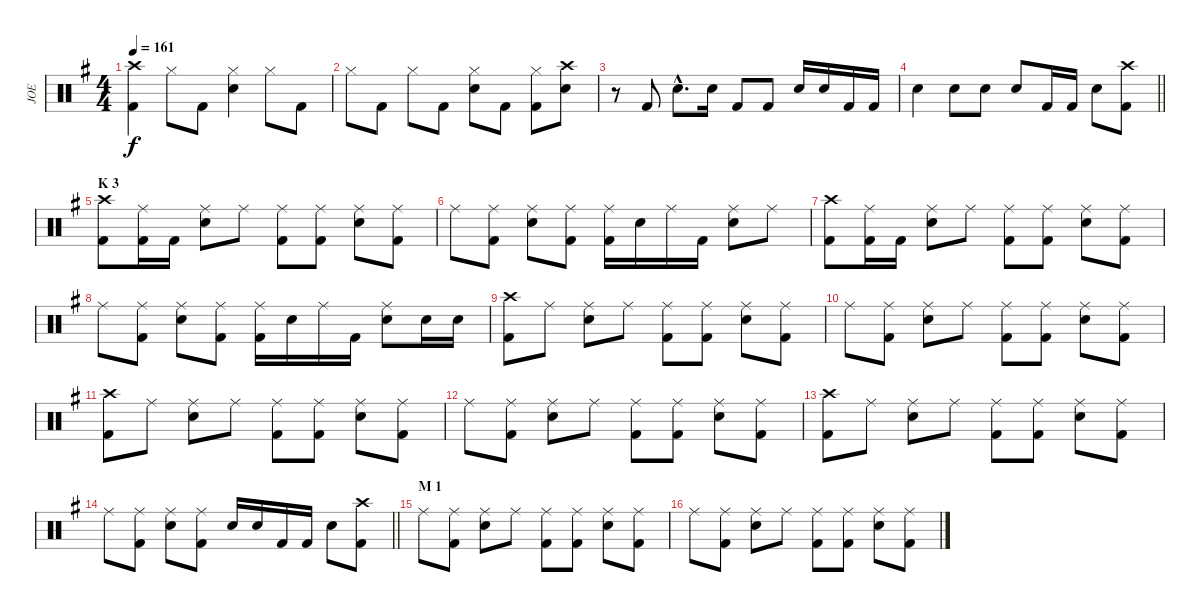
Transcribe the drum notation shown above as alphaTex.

\track ("JOE" "JOE") {instrument percussion}
\staff {score}
\articulation defaults
\ts (4 4)
\tempo 161
\clef neutral
\ks g
("Crash high (hit)" "Kick (hit) 2").4{dy f} "Hi-Hat (closed)".8 "Kick (hit) 2".8 ("Hi-Hat (closed)" "Snare (hit) 2").4 "Hi-Hat (closed)".8 "Kick (hit) 2".8 |
"Hi-Hat (closed)".8 "Kick (hit) 2".8 "Hi-Hat (closed)".8 "Kick (hit) 2".8 ("Hi-Hat (closed)" "Snare (hit) 2").8 "Kick (hit) 2".8 ("Hi-Hat (closed)" "Kick (hit) 2").8 ("Crash high (hit)" "Snare (hit) 2").8 |
r.8 "Kick (hit) 2".8 "Snare (hit) 2"{hac}.8{d} "Snare (hit) 2".16 "Kick (hit) 2".8 "Kick (hit) 2".8 "Snare (hit) 2".16 "Snare (hit) 2".16 "Kick (hit) 2".16 "Kick (hit) 2".16 |
\barLineRight lightlight "Snare (hit) 2".4 "Snare (hit) 2".8 "Snare (hit) 2".8 "Snare (hit) 2".8 "Kick (hit) 2".16 "Kick (hit) 2".16 "Snare (hit) 2".8
("Crash high (hit)" "Kick (hit) 2").8 |
\section ("" "K 3")
("Crash high (hit)" "Kick (hit) 2").8 ("Ride (middle)" "Kick (hit) 2").16 "Kick (hit) 2".16 ("Ride (middle)" "Snare (hit) 2").8 "Ride (middle)".8 ("Ride (middle)" "Kick (hit) 2").8 ("Ride (middle)" "Kick (hit) 2").8 ("Ride (middle)" "Snare (hit) 2").8 ("Ride (middle)" "Kick (hit) 2").8 |
"Ride (middle)".8 ("Ride (middle)" "Kick (hit) 2").8 ("Ride (middle)" "Snare (hit) 2").8 ("Ride (middle)" "Kick (hit) 2").8 ("Ride (middle)" "Kick (hit) 2").16 "Snare (hit) 2".16 "Ride (middle)".16 "Kick (hit) 2".16 ("Ride (middle)" "Snare (hit) 2").8 "Ride (middle)".8 |
("Crash high (hit)" "Kick (hit) 2").8 ("Ride (middle)" "Kick (hit) 2").16 "Kick (hit) 2".16 ("Ride (middle)" "Snare (hit) 2").8 "Ride (middle)".8 ("Ride (middle)" "Kick (hit) 2").8 ("Ride (middle)" "Kick (hit) 2").8 ("Ride (middle)" "Snare (hit) 2").8 ("Ride (middle)" "Kick (hit) 2").8 |
"Ride (middle)".8 ("Ride (middle)" "Kick (hit) 2").8 ("Ride (middle)" "Snare (hit) 2").8 ("Ride (middle)" "Kick (hit) 2").8 ("Ride (middle)" "Kick (hit) 2").16 "Snare (hit) 2".16 "Ride (middle)".16 "Kick (hit) 2".16 ("Ride (middle)" "Snare (hit) 2").8 "Snare (hit) 2".16 "Snare (hit) 2".16 |
("Crash high (hit)" "Kick (hit) 2").8 "Ride (middle)".8 ("Ride (middle)" "Snare (hit) 2").8 "Ride (middle)".8 ("Ride (middle)" "Kick (hit) 2").8 ("Ride (middle)" "Kick (hit) 2").8 ("Ride (middle)" "Snare (hit) 2").8 ("Ride (middle)" "Kick (hit) 2").8 |
"Ride (middle)".8 ("Ride (middle)" "Kick (hit) 2").8 ("Ride (middle)" "Snare (hit) 2").8 "Ride (middle)".8 ("Ride (middle)" "Kick (hit) 2").8 ("Ride (middle)" "Kick (hit) 2").8 ("Ride (middle)" "Snare (hit) 2").8 ("Ride (middle)" "Kick (hit) 2").8 |
("Crash high (hit)" "Kick (hit) 2").8 "Ride (middle)".8 ("Ride (middle)" "Snare (hit) 2").8 "Ride (middle)".8 ("Ride (middle)" "Kick (hit) 2").8 ("Ride (middle)" "Kick (hit) 2").8 ("Ride (middle)" "Snare (hit) 2").8 ("Ride (middle)" "Kick (hit) 2").8 |
"Ride (middle)".8 ("Ride (middle)" "Kick (hit) 2").8 ("Ride (middle)" "Snare (hit) 2").8 "Ride (middle)".8 ("Ride (middle)" "Kick (hit) 2").8 ("Ride (middle)" "Kick (hit) 2").8 ("Ride (middle)" "Snare (hit) 2").8 ("Ride (middle)" "Kick (hit) 2").8 |
("Crash high (hit)" "Kick (hit) 2").8 "Ride (middle)".8 ("Ride (middle)" "Snare (hit) 2").8 "Ride (middle)".8 ("Ride (middle)" "Kick (hit) 2").8 ("Ride (middle)" "Kick (hit) 2").8 ("Ride (middle)" "Snare (hit) 2").8 ("Ride (middle)" "Kick (hit) 2").8 |
\barLineRight lightlight "Ride (middle)".8
("Ride (middle)" "Kick (hit) 2").8 ("Ride (middle)" "Snare (hit) 2").8 ("Ride (middle)" "Kick (hit) 2").8 "Snare (hit) 2".16 "Snare (hit) 2".16 "Kick (hit) 2".16 "Kick (hit) 2".16 "Snare (hit) 2".8 ("Crash high (hit)" "Kick (hit) 2").8 |
\section ("" "M 1")
"Ride (middle)".8 ("Ride (middle)" "Kick (hit) 2").8 ("Ride (middle)" "Snare (hit) 2").8 "Ride (middle)".8 ("Ride (middle)" "Kick (hit) 2").8 ("Ride (middle)" "Kick (hit) 2").8 ("Ride (middle)" "Snare (hit) 2").8 ("Ride (middle)" "Kick (hit) 2").8 |
"Ride (middle)".8 ("Ride (middle)" "Kick (hit) 2").8 ("Ride (middle)" "Snare (hit) 2").8 "Ride (middle)".8 ("Ride (middle)" "Kick (hit) 2").8 ("Ride (middle)" "Kick (hit) 2").8 ("Ride (middle)" "Snare (hit) 2").8 ("Ride (middle)" "Kick (hit) 2").8
